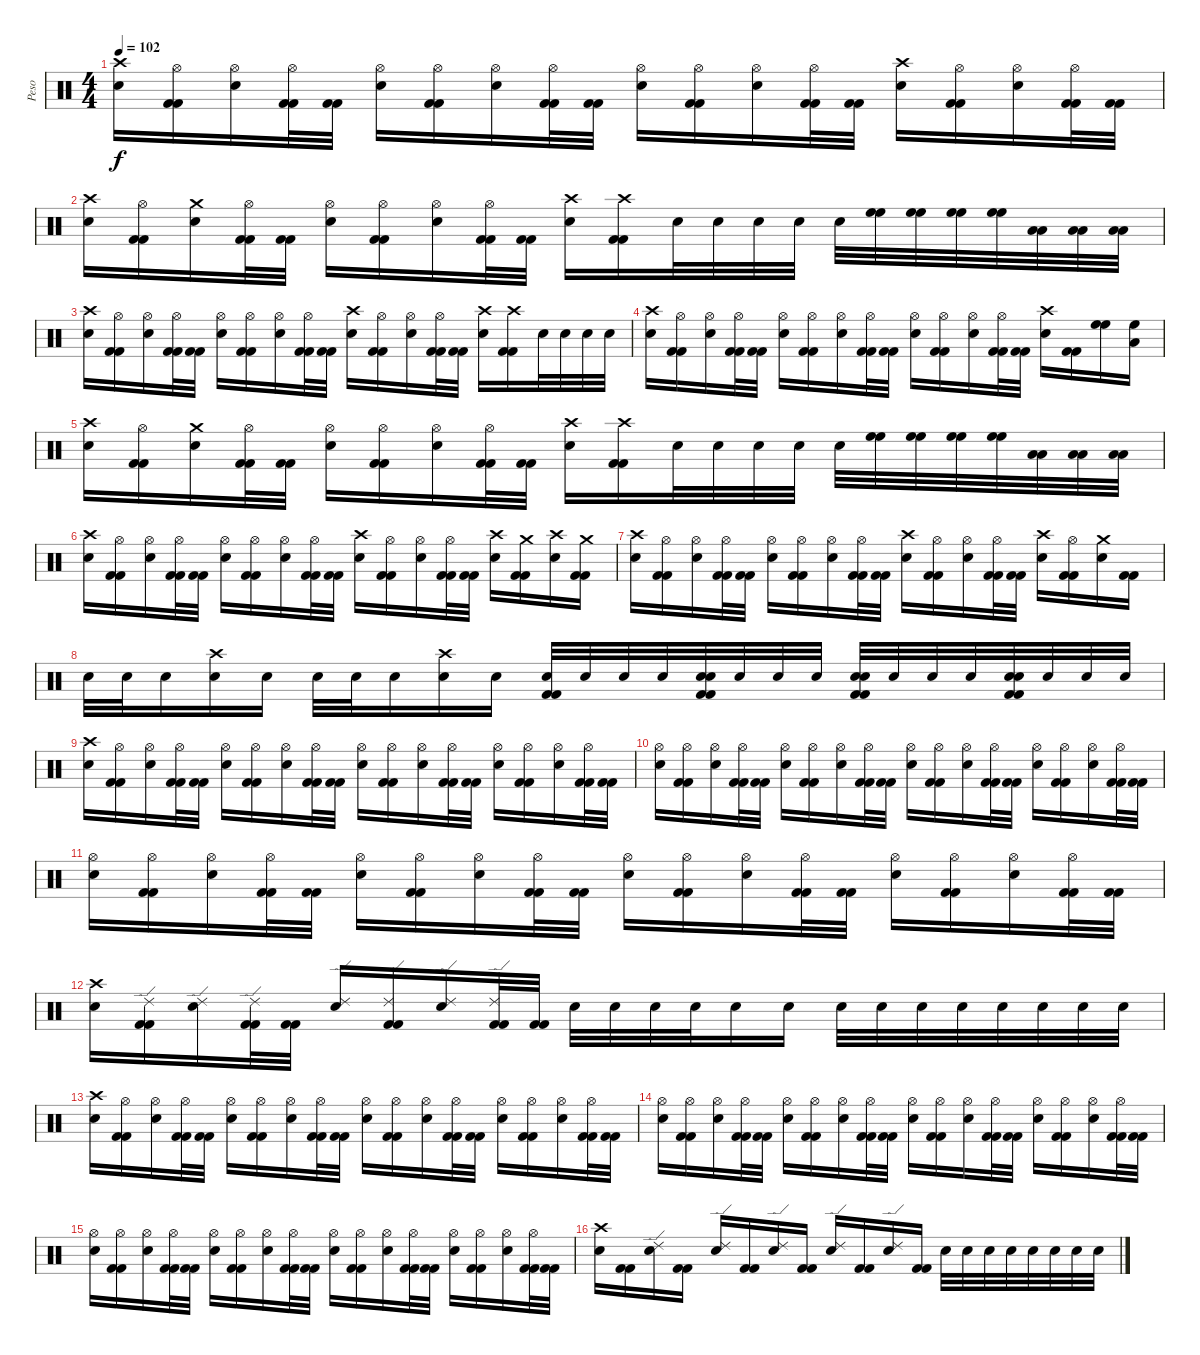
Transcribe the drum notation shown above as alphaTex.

\track ("Peso" "Peso") {instrument percussion}
\staff {score}
\articulation defaults
\ts (4 4)
\tempo 102
\clef neutral
\ks c
("Crash high (hit)" "Snare (hit) 2").16{dy f} ("Hi-Hat (open)" "Kick (hit) 2" "Kick (hit) 2").16 ("Hi-Hat (open)" "Snare (hit) 2").16 ("Hi-Hat (open)" "Kick (hit) 2" "Kick (hit) 2").32 ("Kick (hit) 2" "Kick (hit) 2").32 ("Hi-Hat (open)" "Snare (hit) 2").16 ("Hi-Hat (open)" "Kick (hit) 2" "Kick (hit) 2").16 ("Hi-Hat (open)" "Snare (hit) 2").16 ("Hi-Hat (open)" "Kick (hit) 2" "Kick (hit) 2").32 ("Kick (hit) 2" "Kick (hit) 2").32 ("Hi-Hat (open)" "Snare (hit) 2").16 ("Hi-Hat (open)" "Kick (hit) 2" "Kick (hit) 2").16 ("Hi-Hat (open)" "Snare (hit) 2").16 ("Hi-Hat (open)" "Kick (hit) 2" "Kick (hit) 2").32 ("Kick (hit) 2" "Kick (hit) 2").32 ("Crash high (hit)" "Snare (hit) 2").16 ("Hi-Hat (open)" "Kick (hit) 2" "Kick (hit) 2").16 ("Hi-Hat (open)" "Snare (hit) 2").16 ("Hi-Hat (open)" "Kick (hit) 2" "Kick (hit) 2").32 ("Kick (hit) 2" "Kick (hit) 2").32 |
("Crash high (hit)" "Snare (hit) 2").16 ("Hi-Hat (open)" "Kick (hit) 2" "Kick (hit) 2").16 ("Crash medium (hit)" "Snare (hit) 2").16 ("Hi-Hat (open)" "Kick (hit) 2" "Kick (hit) 2").32 ("Kick (hit) 2" "Kick (hit) 2").32 ("Hi-Hat (open)" "Snare (hit) 2").16 ("Hi-Hat (open)" "Kick (hit) 2" "Kick (hit) 2").16 ("Hi-Hat (open)" "Snare (hit) 2").16 ("Hi-Hat (open)" "Kick (hit) 2" "Kick (hit) 2").32 ("Kick (hit) 2" "Kick (hit) 2").32 ("Crash high (hit)" "Snare (hit) 2").16 ("Crash high (hit)" "Kick (hit) 2" "Kick (hit) 2").16 "Snare (hit) 2".32 "Snare (hit) 2".32 "Snare (hit) 2".32 "Snare (hit) 2".32 "Snare (hit) 2".32 ("High Floor Tom (hit)" "High Floor Tom (hit)").32{volume 16} ("High Floor Tom (hit)" "High Floor Tom (hit)").32 ("High Floor Tom (hit)" "High Floor Tom (hit)").32 ("High Floor Tom (hit)" "High Floor Tom (hit)").32 ("Low Floor Tom (hit)" "Low Floor Tom (hit)").32 ("Low Floor Tom (hit)" "Low Floor Tom (hit)").32 ("Low Floor Tom (hit)" "Low Floor Tom (hit)").32 |
("Crash high (hit)" "Snare (hit) 2").16{volume 15} ("Hi-Hat (open)" "Kick (hit) 2" "Kick (hit) 2").16 ("Hi-Hat (open)" "Snare (hit) 2").16 ("Hi-Hat (open)" "Kick (hit) 2" "Kick (hit) 2").32 ("Kick (hit) 2" "Kick (hit) 2").32 ("Hi-Hat (open)" "Snare (hit) 2").16 ("Hi-Hat (open)" "Kick (hit) 2" "Kick (hit) 2").16 ("Hi-Hat (open)" "Snare (hit) 2").16 ("Hi-Hat (open)" "Kick (hit) 2" "Kick (hit) 2").32 ("Kick (hit) 2" "Kick (hit) 2").32 ("Crash high (hit)" "Snare (hit) 2").16 ("Hi-Hat (open)" "Kick (hit) 2" "Kick (hit) 2").16 ("Hi-Hat (open)" "Snare (hit) 2").16 ("Hi-Hat (open)" "Kick (hit) 2" "Kick (hit) 2").32 ("Kick (hit) 2" "Kick (hit) 2").32 ("Crash high (hit)" "Snare (hit) 2").16 ("Crash high (hit)" "Kick (hit) 2" "Kick (hit) 2").16 "Snare (hit) 2".32 "Snare (hit) 2".32 "Snare (hit) 2".32 "Snare (hit) 2".32 |
("Crash high (hit)" "Snare (hit) 2").16 ("Hi-Hat (open)" "Kick (hit) 2" "Kick (hit) 2").16 ("Hi-Hat (open)" "Snare (hit) 2").16 ("Hi-Hat (open)" "Kick (hit) 2" "Kick (hit) 2").32 ("Kick (hit) 2" "Kick (hit) 2").32 ("Hi-Hat (open)" "Snare (hit) 2").16 ("Hi-Hat (open)" "Kick (hit) 2" "Kick (hit) 2").16 ("Hi-Hat (open)" "Snare (hit) 2").16 ("Hi-Hat (open)" "Kick (hit) 2" "Kick (hit) 2").32 ("Kick (hit) 2" "Kick (hit) 2").32 ("Hi-Hat (open)" "Snare (hit) 2").16 ("Hi-Hat (open)" "Kick (hit) 2" "Kick (hit) 2").16 ("Hi-Hat (open)" "Snare (hit) 2").16 ("Hi-Hat (open)" "Kick (hit) 2" "Kick (hit) 2").32 ("Kick (hit) 2" "Kick (hit) 2").32 ("Crash high (hit)" "Snare (hit) 2").16 ("Kick (hit) 2" "Kick (hit) 2").16 ("High Floor Tom (hit)" "High Floor Tom (hit)").16{volume 16} ("High Floor Tom (hit)" "Low Floor Tom (hit)").16 |
("Crash high (hit)" "Snare (hit) 2").16{volume 15} ("Hi-Hat (open)" "Kick (hit) 2" "Kick (hit) 2").16 ("Crash medium (hit)" "Snare (hit) 2").16 ("Hi-Hat (open)" "Kick (hit) 2" "Kick (hit) 2").32 ("Kick (hit) 2" "Kick (hit) 2").32 ("Hi-Hat (open)" "Snare (hit) 2").16 ("Hi-Hat (open)" "Kick (hit) 2" "Kick (hit) 2").16 ("Hi-Hat (open)" "Snare (hit) 2").16 ("Hi-Hat (open)" "Kick (hit) 2" "Kick (hit) 2").32 ("Kick (hit) 2" "Kick (hit) 2").32 ("Crash high (hit)" "Snare (hit) 2").16 ("Crash high (hit)" "Kick (hit) 2" "Kick (hit) 2").16 "Snare (hit) 2".32 "Snare (hit) 2".32 "Snare (hit) 2".32 "Snare (hit) 2".32 "Snare (hit) 2".32 ("High Floor Tom (hit)" "High Floor Tom (hit)").32{volume 16} ("High Floor Tom (hit)" "High Floor Tom (hit)").32 ("High Floor Tom (hit)" "High Floor Tom (hit)").32 ("High Floor Tom (hit)" "High Floor Tom (hit)").32 ("Low Floor Tom (hit)" "Low Floor Tom (hit)").32 ("Low Floor Tom (hit)" "Low Floor Tom (hit)").32 ("Low Floor Tom (hit)" "Low Floor Tom (hit)").32 |
("Crash high (hit)" "Snare (hit) 2").16{volume 15} ("Hi-Hat (open)" "Kick (hit) 2" "Kick (hit) 2").16 ("Hi-Hat (open)" "Snare (hit) 2").16 ("Hi-Hat (open)" "Kick (hit) 2" "Kick (hit) 2").32 ("Kick (hit) 2" "Kick (hit) 2").32 ("Hi-Hat (open)" "Snare (hit) 2").16 ("Hi-Hat (open)" "Kick (hit) 2" "Kick (hit) 2").16 ("Hi-Hat (open)" "Snare (hit) 2").16 ("Hi-Hat (open)" "Kick (hit) 2" "Kick (hit) 2").32 ("Kick (hit) 2" "Kick (hit) 2").32 ("Crash high (hit)" "Snare (hit) 2").16 ("Hi-Hat (open)" "Kick (hit) 2" "Kick (hit) 2").16 ("Hi-Hat (open)" "Snare (hit) 2").16 ("Hi-Hat (open)" "Kick (hit) 2" "Kick (hit) 2").32 ("Kick (hit) 2" "Kick (hit) 2").32 ("Crash high (hit)" "Snare (hit) 2").16 ("Crash medium (hit)" "Kick (hit) 2" "Kick (hit) 2").16 ("Crash high (hit)" "Snare (hit) 2").16 ("Crash medium (hit)" "Kick (hit) 2" "Kick (hit) 2").16 |
("Crash high (hit)" "Snare (hit) 2").16 ("Hi-Hat (open)" "Kick (hit) 2" "Kick (hit) 2").16 ("Hi-Hat (open)" "Snare (hit) 2").16 ("Hi-Hat (open)" "Kick (hit) 2" "Kick (hit) 2").32 ("Kick (hit) 2" "Kick (hit) 2").32 ("Hi-Hat (open)" "Snare (hit) 2").16 ("Hi-Hat (open)" "Kick (hit) 2" "Kick (hit) 2").16 ("Hi-Hat (open)" "Snare (hit) 2").16 ("Hi-Hat (open)" "Kick (hit) 2" "Kick (hit) 2").32 ("Kick (hit) 2" "Kick (hit) 2").32 ("Crash high (hit)" "Snare (hit) 2").16 ("Hi-Hat (open)" "Kick (hit) 2" "Kick (hit) 2").16 ("Hi-Hat (open)" "Snare (hit) 2").16 ("Hi-Hat (open)" "Kick (hit) 2" "Kick (hit) 2").32 ("Kick (hit) 2" "Kick (hit) 2").32 ("Crash high (hit)" "Snare (hit) 2").16 ("Hi-Hat (open)" "Kick (hit) 2" "Kick (hit) 2").16 ("Crash medium (hit)" "Snare (hit) 2").16 ("Kick (hit) 2" "Kick (hit) 2").16 |
"Snare (hit) 2".32 "Snare (hit) 2".32 "Snare (hit) 2".16 ("Crash high (hit)" "Snare (hit) 2").16 "Snare (hit) 2".16 "Snare (hit) 2".32 "Snare (hit) 2".32 "Snare (hit) 2".16 ("Crash high (hit)" "Snare (hit) 2").16 "Snare (hit) 2".16 ("Snare (hit) 2" "Kick (hit) 2" "Kick (hit) 2").32 "Snare (hit) 2".32 "Snare (hit) 2".32 "Snare (hit) 2".32 ("Snare (hit) 2" "Snare (hit) 2" "Kick (hit) 2" "Kick (hit) 2").32 "Snare (hit) 2".32 "Snare (hit) 2".32 "Snare (hit) 2".32 ("Snare (hit) 2" "Snare (hit) 2" "Kick (hit) 2" "Kick (hit) 2").32 "Snare (hit) 2".32 "Snare (hit) 2".32 "Snare (hit) 2".32 ("Snare (hit) 2" "Snare (hit) 2" "Kick (hit) 2" "Kick (hit) 2").32 "Snare (hit) 2".32 "Snare (hit) 2".32 "Snare (hit) 2".32 |
("Crash high (hit)" "Snare (hit) 2").16{volume 15} ("Hi-Hat (open)" "Kick (hit) 2" "Kick (hit) 2").16 ("Hi-Hat (open)" "Snare (hit) 2").16 ("Hi-Hat (open)" "Kick (hit) 2" "Kick (hit) 2").32 ("Kick (hit) 2" "Kick (hit) 2").32 ("Hi-Hat (open)" "Snare (hit) 2").16 ("Hi-Hat (open)" "Kick (hit) 2" "Kick (hit) 2").16 ("Hi-Hat (open)" "Snare (hit) 2").16 ("Hi-Hat (open)" "Kick (hit) 2" "Kick (hit) 2").32 ("Kick (hit) 2" "Kick (hit) 2").32 ("Hi-Hat (open)" "Snare (hit) 2").16 ("Hi-Hat (open)" "Kick (hit) 2" "Kick (hit) 2").16 ("Hi-Hat (open)" "Snare (hit) 2").16 ("Hi-Hat (open)" "Kick (hit) 2" "Kick (hit) 2").32 ("Kick (hit) 2" "Kick (hit) 2").32 ("Hi-Hat (open)" "Snare (hit) 2").16 ("Hi-Hat (open)" "Kick (hit) 2" "Kick (hit) 2").16 ("Hi-Hat (open)" "Snare (hit) 2").16 ("Hi-Hat (open)" "Kick (hit) 2" "Kick (hit) 2").32 ("Kick (hit) 2" "Kick (hit) 2").32 |
("Hi-Hat (open)" "Snare (hit) 2").16 ("Hi-Hat (open)" "Kick (hit) 2" "Kick (hit) 2").16 ("Hi-Hat (open)" "Snare (hit) 2").16 ("Hi-Hat (open)" "Kick (hit) 2" "Kick (hit) 2").32 ("Kick (hit) 2" "Kick (hit) 2").32 ("Hi-Hat (open)" "Snare (hit) 2").16 ("Hi-Hat (open)" "Kick (hit) 2" "Kick (hit) 2").16 ("Hi-Hat (open)" "Snare (hit) 2").16 ("Hi-Hat (open)" "Kick (hit) 2" "Kick (hit) 2").32 ("Kick (hit) 2" "Kick (hit) 2").32 ("Hi-Hat (open)" "Snare (hit) 2").16 ("Hi-Hat (open)" "Kick (hit) 2" "Kick (hit) 2").16 ("Hi-Hat (open)" "Snare (hit) 2").16 ("Hi-Hat (open)" "Kick (hit) 2" "Kick (hit) 2").32 ("Kick (hit) 2" "Kick (hit) 2").32 ("Hi-Hat (open)" "Snare (hit) 2").16 ("Hi-Hat (open)" "Kick (hit) 2" "Kick (hit) 2").16 ("Hi-Hat (open)" "Snare (hit) 2").16 ("Hi-Hat (open)" "Kick (hit) 2" "Kick (hit) 2").32 ("Kick (hit) 2" "Kick (hit) 2").32 |
("Hi-Hat (open)" "Snare (hit) 2").16 ("Hi-Hat (open)" "Kick (hit) 2" "Kick (hit) 2").16 ("Hi-Hat (open)" "Snare (hit) 2").16 ("Hi-Hat (open)" "Kick (hit) 2" "Kick (hit) 2").32 ("Kick (hit) 2" "Kick (hit) 2").32 ("Hi-Hat (open)" "Snare (hit) 2").16 ("Hi-Hat (open)" "Kick (hit) 2" "Kick (hit) 2").16 ("Hi-Hat (open)" "Snare (hit) 2").16 ("Hi-Hat (open)" "Kick (hit) 2" "Kick (hit) 2").32 ("Kick (hit) 2" "Kick (hit) 2").32 ("Hi-Hat (open)" "Snare (hit) 2").16 ("Hi-Hat (open)" "Kick (hit) 2" "Kick (hit) 2").16 ("Hi-Hat (open)" "Snare (hit) 2").16 ("Hi-Hat (open)" "Kick (hit) 2" "Kick (hit) 2").32 ("Kick (hit) 2" "Kick (hit) 2").32 ("Hi-Hat (open)" "Snare (hit) 2").16 ("Hi-Hat (open)" "Kick (hit) 2" "Kick (hit) 2").16 ("Hi-Hat (open)" "Snare (hit) 2").16 ("Hi-Hat (open)" "Kick (hit) 2" "Kick (hit) 2").32 ("Kick (hit) 2" "Kick (hit) 2").32 |
("Crash high (hit)" "Snare (hit) 2").16 ("Ride (edge) 2" "Kick (hit) 2" "Kick (hit) 2").16 ("Ride (edge) 2" "Snare (hit) 2").16 ("Ride (edge) 2" "Kick (hit) 2" "Kick (hit) 2").32 ("Kick (hit) 2" "Kick (hit) 2").32 ("Ride (edge) 2" "Snare (hit) 2").16 ("Ride (edge) 2" "Kick (hit) 2" "Kick (hit) 2").16 ("Ride (edge) 2" "Snare (hit) 2").16 ("Ride (edge) 2" "Kick (hit) 2" "Kick (hit) 2").32 ("Kick (hit) 2" "Kick (hit) 2").32 "Snare (hit) 2".32 "Snare (hit) 2".32 "Snare (hit) 2".32 "Snare (hit) 2".32 "Snare (hit) 2".16 "Snare (hit) 2".16 "Snare (hit) 2".32 "Snare (hit) 2".32 "Snare (hit) 2".32 "Snare (hit) 2".32 "Snare (hit) 2".32 "Snare (hit) 2".32 "Snare (hit) 2".32 "Snare (hit) 2".32 |
("Crash high (hit)" "Snare (hit) 2").16 ("Hi-Hat (open)" "Kick (hit) 2" "Kick (hit) 2").16 ("Hi-Hat (open)" "Snare (hit) 2").16 ("Hi-Hat (open)" "Kick (hit) 2" "Kick (hit) 2").32 ("Kick (hit) 2" "Kick (hit) 2").32 ("Hi-Hat (open)" "Snare (hit) 2").16 ("Hi-Hat (open)" "Kick (hit) 2" "Kick (hit) 2").16 ("Hi-Hat (open)" "Snare (hit) 2").16 ("Hi-Hat (open)" "Kick (hit) 2" "Kick (hit) 2").32 ("Kick (hit) 2" "Kick (hit) 2").32 ("Hi-Hat (open)" "Snare (hit) 2").16 ("Hi-Hat (open)" "Kick (hit) 2" "Kick (hit) 2").16 ("Hi-Hat (open)" "Snare (hit) 2").16 ("Hi-Hat (open)" "Kick (hit) 2" "Kick (hit) 2").32 ("Kick (hit) 2" "Kick (hit) 2").32 ("Hi-Hat (open)" "Snare (hit) 2").16 ("Hi-Hat (open)" "Kick (hit) 2" "Kick (hit) 2").16 ("Hi-Hat (open)" "Snare (hit) 2").16 ("Hi-Hat (open)" "Kick (hit) 2" "Kick (hit) 2").32 ("Kick (hit) 2" "Kick (hit) 2").32 |
("Hi-Hat (open)" "Snare (hit) 2").16 ("Hi-Hat (open)" "Kick (hit) 2" "Kick (hit) 2").16 ("Hi-Hat (open)" "Snare (hit) 2").16 ("Hi-Hat (open)" "Kick (hit) 2" "Kick (hit) 2").32 ("Kick (hit) 2" "Kick (hit) 2").32 ("Hi-Hat (open)" "Snare (hit) 2").16 ("Hi-Hat (open)" "Kick (hit) 2" "Kick (hit) 2").16 ("Hi-Hat (open)" "Snare (hit) 2").16 ("Hi-Hat (open)" "Kick (hit) 2" "Kick (hit) 2").32 ("Kick (hit) 2" "Kick (hit) 2").32 ("Hi-Hat (open)" "Snare (hit) 2").16 ("Hi-Hat (open)" "Kick (hit) 2" "Kick (hit) 2").16 ("Hi-Hat (open)" "Snare (hit) 2").16 ("Hi-Hat (open)" "Kick (hit) 2" "Kick (hit) 2").32 ("Kick (hit) 2" "Kick (hit) 2").32 ("Hi-Hat (open)" "Snare (hit) 2").16 ("Hi-Hat (open)" "Kick (hit) 2" "Kick (hit) 2").16 ("Hi-Hat (open)" "Snare (hit) 2").16 ("Hi-Hat (open)" "Kick (hit) 2" "Kick (hit) 2").32 ("Kick (hit) 2" "Kick (hit) 2").32 |
("Hi-Hat (open)" "Snare (hit) 2").16 ("Hi-Hat (open)" "Kick (hit) 2" "Kick (hit) 2").16 ("Hi-Hat (open)" "Snare (hit) 2").16 ("Hi-Hat (open)" "Kick (hit) 2" "Kick (hit) 2").32 ("Kick (hit) 2" "Kick (hit) 2").32 ("Hi-Hat (open)" "Snare (hit) 2").16 ("Hi-Hat (open)" "Kick (hit) 2" "Kick (hit) 2").16 ("Hi-Hat (open)" "Snare (hit) 2").16 ("Hi-Hat (open)" "Kick (hit) 2" "Kick (hit) 2").32 ("Kick (hit) 2" "Kick (hit) 2").32 ("Hi-Hat (open)" "Snare (hit) 2").16 ("Hi-Hat (open)" "Kick (hit) 2" "Kick (hit) 2").16 ("Hi-Hat (open)" "Snare (hit) 2").16 ("Hi-Hat (open)" "Kick (hit) 2" "Kick (hit) 2").32 ("Kick (hit) 2" "Kick (hit) 2").32 ("Hi-Hat (open)" "Snare (hit) 2").16 ("Hi-Hat (open)" "Kick (hit) 2" "Kick (hit) 2").16 ("Hi-Hat (open)" "Snare (hit) 2").16 ("Hi-Hat (open)" "Kick (hit) 2" "Kick (hit) 2").32 ("Kick (hit) 2" "Kick (hit) 2").32 |
("Crash high (hit)" "Snare (hit) 2").16 ("Kick (hit) 2" "Kick (hit) 2").16 ("Ride (edge) 2" "Snare (hit) 2").16 ("Kick (hit) 2" "Kick (hit) 2").16 ("Ride (edge) 2" "Snare (hit) 2").16 ("Kick (hit) 2" "Kick (hit) 2").16 ("Ride (edge) 2" "Snare (hit) 2").16 ("Kick (hit) 2" "Kick (hit) 2").16 ("Ride (edge) 2" "Snare (hit) 2").16 ("Kick (hit) 2" "Kick (hit) 2").16 ("Ride (edge) 2" "Snare (hit) 2").16 ("Kick (hit) 2" "Kick (hit) 2").16 "Snare (hit) 2".32 "Snare (hit) 2".32 "Snare (hit) 2".32 "Snare (hit) 2".32 "Snare (hit) 2".32 "Snare (hit) 2".32 "Snare (hit) 2".32 "Snare (hit) 2".32
